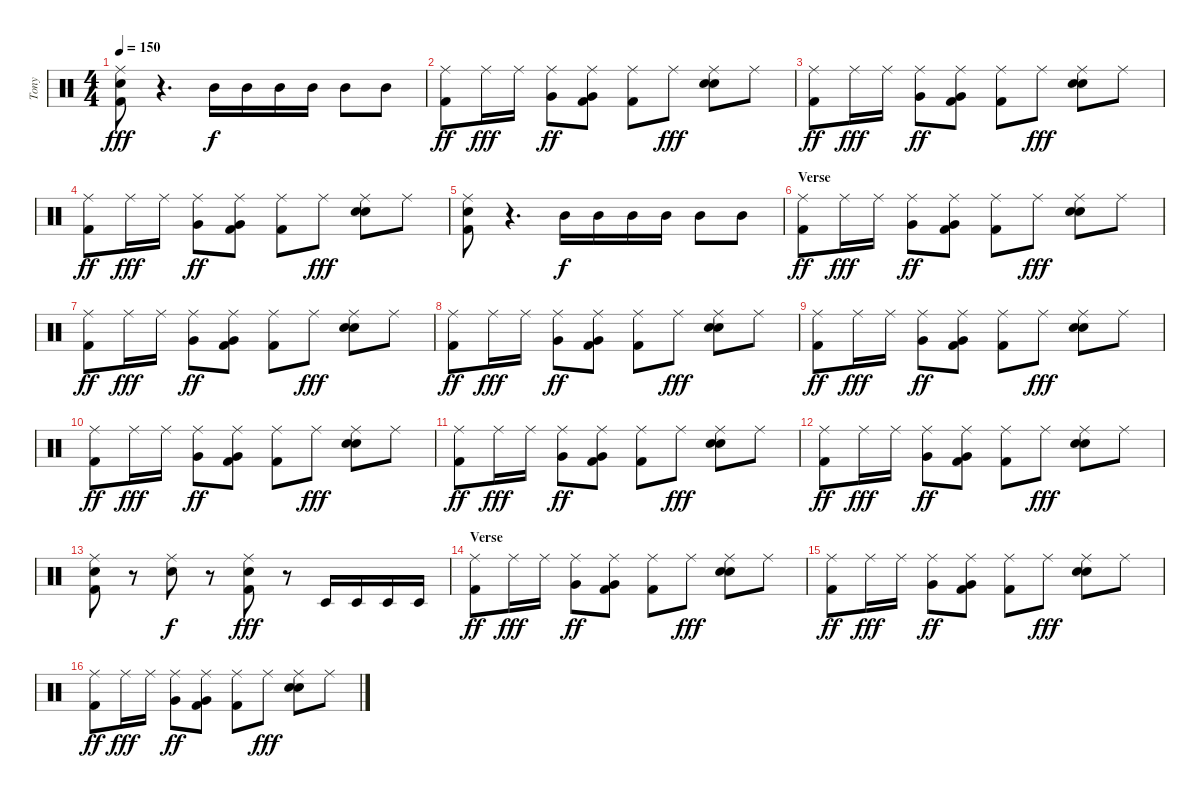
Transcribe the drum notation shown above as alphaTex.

\track ("Tony" "Tony") {instrument percussion}
\staff {score}
\articulation defaults
\ts (4 4)
\tempo 150
\clef neutral
\ks c
("Ride (middle)" "Electric Snare (hit)" "Kick (hit) 2").8{dy fff} r.4{d} "Mid Tom (hit)".16{dy f} "Mid Tom (hit)".16 "Mid Tom (hit)".16 "Mid Tom (hit)".16 "Mid Tom (hit)".8 "Mid Tom (hit)".8 |
("Ride (middle)" "Kick (hit) 2").8{dy ff} "Ride (middle)".16{dy fff} "Ride (middle)".16 ("Ride (middle)" "Very Low Tom (hit)").8{dy ff} ("Ride (middle)" "Very Low Tom (hit)" "Kick (hit) 2").8 ("Ride (middle)" "Kick (hit) 2").8 "Ride (middle)".8{dy fff} ("Ride (middle)" "Electric Snare (hit)" "Snare (hit) 2").8 "Ride (middle)".8 |
("Ride (middle)" "Kick (hit) 2").8{dy ff} "Ride (middle)".16{dy fff} "Ride (middle)".16 ("Ride (middle)" "Very Low Tom (hit)").8{dy ff} ("Ride (middle)" "Very Low Tom (hit)" "Kick (hit) 2").8 ("Ride (middle)" "Kick (hit) 2").8 "Ride (middle)".8{dy fff} ("Ride (middle)" "Electric Snare (hit)" "Snare (hit) 2").8 "Ride (middle)".8 |
("Ride (middle)" "Kick (hit) 2").8{dy ff} "Ride (middle)".16{dy fff} "Ride (middle)".16 ("Ride (middle)" "Very Low Tom (hit)").8{dy ff} ("Ride (middle)" "Very Low Tom (hit)" "Kick (hit) 2").8 ("Ride (middle)" "Kick (hit) 2").8 "Ride (middle)".8{dy fff} ("Ride (middle)" "Electric Snare (hit)" "Snare (hit) 2").8 "Ride (middle)".8 |
("Ride (middle)" "Electric Snare (hit)" "Kick (hit) 2").8 r.4{d} "Mid Tom (hit)".16{dy f} "Mid Tom (hit)".16 "Mid Tom (hit)".16 "Mid Tom (hit)".16 "Mid Tom (hit)".8 "Mid Tom (hit)".8 |
\section ("" "Verse")
("Ride (middle)" "Kick (hit) 2").8{dy ff} "Ride (middle)".16{dy fff} "Ride (middle)".16 ("Ride (middle)" "Very Low Tom (hit)").8{dy ff} ("Ride (middle)" "Very Low Tom (hit)" "Kick (hit) 2").8 ("Ride (middle)" "Kick (hit) 2").8 "Ride (middle)".8{dy fff} ("Ride (middle)" "Electric Snare (hit)" "Snare (hit) 2").8 "Ride (middle)".8 |
("Ride (middle)" "Kick (hit) 2").8{dy ff} "Ride (middle)".16{dy fff} "Ride (middle)".16 ("Ride (middle)" "Very Low Tom (hit)").8{dy ff} ("Ride (middle)" "Very Low Tom (hit)" "Kick (hit) 2").8 ("Ride (middle)" "Kick (hit) 2").8 "Ride (middle)".8{dy fff} ("Ride (middle)" "Electric Snare (hit)" "Snare (hit) 2").8 "Ride (middle)".8 |
("Ride (middle)" "Kick (hit) 2").8{dy ff} "Ride (middle)".16{dy fff} "Ride (middle)".16 ("Ride (middle)" "Very Low Tom (hit)").8{dy ff} ("Ride (middle)" "Very Low Tom (hit)" "Kick (hit) 2").8 ("Ride (middle)" "Kick (hit) 2").8 "Ride (middle)".8{dy fff} ("Ride (middle)" "Electric Snare (hit)" "Snare (hit) 2").8 "Ride (middle)".8 |
("Ride (middle)" "Kick (hit) 2").8{dy ff} "Ride (middle)".16{dy fff} "Ride (middle)".16 ("Ride (middle)" "Very Low Tom (hit)").8{dy ff} ("Ride (middle)" "Very Low Tom (hit)" "Kick (hit) 2").8 ("Ride (middle)" "Kick (hit) 2").8 "Ride (middle)".8{dy fff} ("Ride (middle)" "Electric Snare (hit)" "Snare (hit) 2").8 "Ride (middle)".8 |
("Ride (middle)" "Kick (hit) 2").8{dy ff} "Ride (middle)".16{dy fff} "Ride (middle)".16 ("Ride (middle)" "Very Low Tom (hit)").8{dy ff} ("Ride (middle)" "Very Low Tom (hit)" "Kick (hit) 2").8 ("Ride (middle)" "Kick (hit) 2").8 "Ride (middle)".8{dy fff} ("Ride (middle)" "Electric Snare (hit)" "Snare (hit) 2").8 "Ride (middle)".8 |
("Ride (middle)" "Kick (hit) 2").8{dy ff} "Ride (middle)".16{dy fff} "Ride (middle)".16 ("Ride (middle)" "Very Low Tom (hit)").8{dy ff} ("Ride (middle)" "Very Low Tom (hit)" "Kick (hit) 2").8 ("Ride (middle)" "Kick (hit) 2").8 "Ride (middle)".8{dy fff} ("Ride (middle)" "Electric Snare (hit)" "Snare (hit) 2").8 "Ride (middle)".8 |
("Ride (middle)" "Kick (hit) 2").8{dy ff} "Ride (middle)".16{dy fff} "Ride (middle)".16 ("Ride (middle)" "Very Low Tom (hit)").8{dy ff} ("Ride (middle)" "Very Low Tom (hit)" "Kick (hit) 2").8 ("Ride (middle)" "Kick (hit) 2").8 "Ride (middle)".8{dy fff} ("Ride (middle)" "Electric Snare (hit)" "Snare (hit) 2").8 "Ride (middle)".8 |
("Ride (middle)" "Electric Snare (hit)" "Kick (hit) 2").8 r.8 ("Ride (middle)" "Electric Snare (hit)").8{dy f} r.8 ("Ride (middle)" "Electric Snare (hit)" "Kick (hit) 2").8{dy fff} r.8 "Timbale low (hit)".16 "Timbale low (hit)".16 "Timbale low (hit)".16 "Timbale low (hit)".16 |
\section ("" "Verse")
("Ride (middle)" "Kick (hit) 2").8{dy ff} "Ride (middle)".16{dy fff} "Ride (middle)".16 ("Ride (middle)" "Very Low Tom (hit)").8{dy ff} ("Ride (middle)" "Very Low Tom (hit)" "Kick (hit) 2").8 ("Ride (middle)" "Kick (hit) 2").8 "Ride (middle)".8{dy fff} ("Ride (middle)" "Electric Snare (hit)" "Snare (hit) 2").8 "Ride (middle)".8 |
("Ride (middle)" "Kick (hit) 2").8{dy ff} "Ride (middle)".16{dy fff} "Ride (middle)".16 ("Ride (middle)" "Very Low Tom (hit)").8{dy ff} ("Ride (middle)" "Very Low Tom (hit)" "Kick (hit) 2").8 ("Ride (middle)" "Kick (hit) 2").8 "Ride (middle)".8{dy fff} ("Ride (middle)" "Electric Snare (hit)" "Snare (hit) 2").8 "Ride (middle)".8 |
("Ride (middle)" "Kick (hit) 2").8{dy ff} "Ride (middle)".16{dy fff} "Ride (middle)".16 ("Ride (middle)" "Very Low Tom (hit)").8{dy ff} ("Ride (middle)" "Very Low Tom (hit)" "Kick (hit) 2").8 ("Ride (middle)" "Kick (hit) 2").8 "Ride (middle)".8{dy fff} ("Ride (middle)" "Electric Snare (hit)" "Snare (hit) 2").8 "Ride (middle)".8
